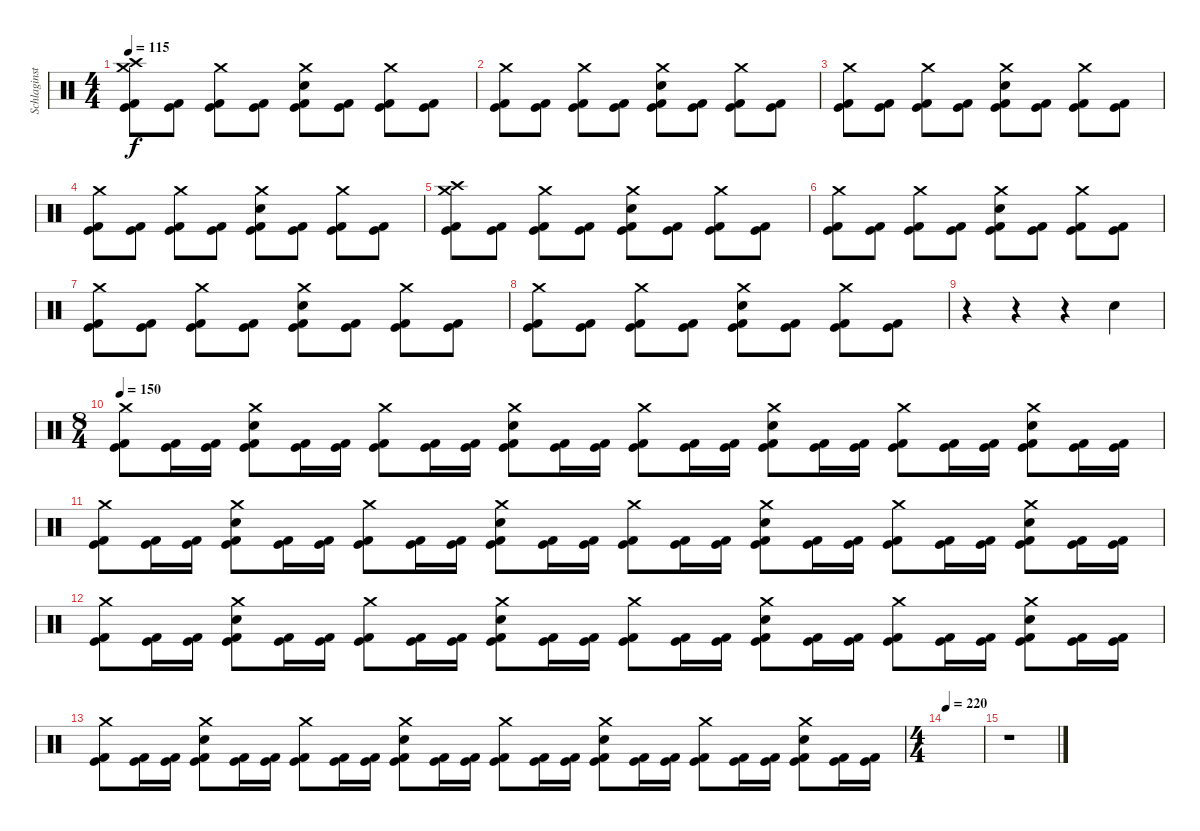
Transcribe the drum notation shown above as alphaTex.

\track ("Schlaginstrumente - Auswahl" "Schlaginst") {instrument percussion}
\staff {score}
\articulation defaults
\ts (4 4)
\tempo 115
\clef neutral
\ks c
("Crash medium (hit)" "Crash high (hit)" "Kick (hit) 2" "Kick (hit)").8{dy f} ("Kick (hit) 2" "Kick (hit)").8 ("Crash medium (hit)" "Kick (hit) 2" "Kick (hit)").8 ("Kick (hit) 2" "Kick (hit)").8 ("Crash medium (hit)" "Electric Snare (hit)" "Kick (hit) 2" "Kick (hit)").8 ("Kick (hit) 2" "Kick (hit)").8 ("Crash medium (hit)" "Kick (hit) 2" "Kick (hit)").8 ("Kick (hit) 2" "Kick (hit)").8 |
("Crash medium (hit)" "Kick (hit) 2" "Kick (hit)").8 ("Kick (hit) 2" "Kick (hit)").8 ("Crash medium (hit)" "Kick (hit) 2" "Kick (hit)").8 ("Kick (hit) 2" "Kick (hit)").8 ("Crash medium (hit)" "Electric Snare (hit)" "Kick (hit) 2" "Kick (hit)").8 ("Kick (hit) 2" "Kick (hit)").8 ("Crash medium (hit)" "Kick (hit) 2" "Kick (hit)").8 ("Kick (hit) 2" "Kick (hit)").8 |
("Crash medium (hit)" "Kick (hit) 2" "Kick (hit)").8 ("Kick (hit) 2" "Kick (hit)").8 ("Crash medium (hit)" "Kick (hit) 2" "Kick (hit)").8 ("Kick (hit) 2" "Kick (hit)").8 ("Crash medium (hit)" "Electric Snare (hit)" "Kick (hit) 2" "Kick (hit)").8 ("Kick (hit) 2" "Kick (hit)").8 ("Crash medium (hit)" "Kick (hit) 2" "Kick (hit)").8 ("Kick (hit) 2" "Kick (hit)").8 |
("Crash medium (hit)" "Kick (hit) 2" "Kick (hit)").8 ("Kick (hit) 2" "Kick (hit)").8 ("Crash medium (hit)" "Kick (hit) 2" "Kick (hit)").8 ("Kick (hit) 2" "Kick (hit)").8 ("Crash medium (hit)" "Electric Snare (hit)" "Kick (hit) 2" "Kick (hit)").8 ("Kick (hit) 2" "Kick (hit)").8 ("Crash medium (hit)" "Kick (hit) 2" "Kick (hit)").8 ("Kick (hit) 2" "Kick (hit)").8 |
("Crash medium (hit)" "Crash high (hit)" "Kick (hit) 2" "Kick (hit)").8 ("Kick (hit) 2" "Kick (hit)").8 ("Crash medium (hit)" "Kick (hit) 2" "Kick (hit)").8 ("Kick (hit) 2" "Kick (hit)").8 ("Crash medium (hit)" "Electric Snare (hit)" "Kick (hit) 2" "Kick (hit)").8 ("Kick (hit) 2" "Kick (hit)").8 ("Crash medium (hit)" "Kick (hit) 2" "Kick (hit)").8 ("Kick (hit) 2" "Kick (hit)").8 |
("Crash medium (hit)" "Kick (hit) 2" "Kick (hit)").8 ("Kick (hit) 2" "Kick (hit)").8 ("Crash medium (hit)" "Kick (hit) 2" "Kick (hit)").8 ("Kick (hit) 2" "Kick (hit)").8 ("Crash medium (hit)" "Electric Snare (hit)" "Kick (hit) 2" "Kick (hit)").8 ("Kick (hit) 2" "Kick (hit)").8 ("Crash medium (hit)" "Kick (hit) 2" "Kick (hit)").8 ("Kick (hit) 2" "Kick (hit)").8 |
("Crash medium (hit)" "Kick (hit) 2" "Kick (hit)").8 ("Kick (hit) 2" "Kick (hit)").8 ("Crash medium (hit)" "Kick (hit) 2" "Kick (hit)").8 ("Kick (hit) 2" "Kick (hit)").8 ("Crash medium (hit)" "Electric Snare (hit)" "Kick (hit) 2" "Kick (hit)").8 ("Kick (hit) 2" "Kick (hit)").8 ("Crash medium (hit)" "Kick (hit) 2" "Kick (hit)").8 ("Kick (hit) 2" "Kick (hit)").8 |
("Crash medium (hit)" "Kick (hit) 2" "Kick (hit)").8 ("Kick (hit) 2" "Kick (hit)").8 ("Crash medium (hit)" "Kick (hit) 2" "Kick (hit)").8 ("Kick (hit) 2" "Kick (hit)").8 ("Crash medium (hit)" "Electric Snare (hit)" "Kick (hit) 2" "Kick (hit)").8 ("Kick (hit) 2" "Kick (hit)").8 ("Crash medium (hit)" "Kick (hit) 2" "Kick (hit)").8 ("Kick (hit) 2" "Kick (hit)").8 |
r.4 r.4 r.4 "Electric Snare (hit)".4 |
\ts (8 4)
\tempo 150
("Crash medium (hit)" "Kick (hit) 2" "Kick (hit)").8 ("Kick (hit) 2" "Kick (hit)").16 ("Kick (hit) 2" "Kick (hit)").16 ("Crash medium (hit)" "Electric Snare (hit)" "Kick (hit) 2" "Kick (hit)").8 ("Kick (hit) 2" "Kick (hit)").16 ("Kick (hit) 2" "Kick (hit)").16 ("Crash medium (hit)" "Kick (hit) 2" "Kick (hit)").8 ("Kick (hit) 2" "Kick (hit)").16 ("Kick (hit) 2" "Kick (hit)").16 ("Crash medium (hit)" "Electric Snare (hit)" "Kick (hit) 2" "Kick (hit)").8 ("Kick (hit) 2" "Kick (hit)").16 ("Kick (hit) 2" "Kick (hit)").16 ("Crash medium (hit)" "Kick (hit) 2" "Kick (hit)").8 ("Kick (hit) 2" "Kick (hit)").16 ("Kick (hit) 2" "Kick (hit)").16 ("Crash medium (hit)" "Electric Snare (hit)" "Kick (hit) 2" "Kick (hit)").8 ("Kick (hit) 2" "Kick (hit)").16 ("Kick (hit) 2" "Kick (hit)").16 ("Crash medium (hit)" "Kick (hit) 2" "Kick (hit)").8 ("Kick (hit) 2" "Kick (hit)").16 ("Kick (hit) 2" "Kick (hit)").16 ("Crash medium (hit)" "Electric Snare (hit)" "Kick (hit) 2" "Kick (hit)").8 ("Kick (hit) 2" "Kick (hit)").16 ("Kick (hit) 2" "Kick (hit)").16 |
("Crash medium (hit)" "Kick (hit) 2" "Kick (hit)").8 ("Kick (hit) 2" "Kick (hit)").16 ("Kick (hit) 2" "Kick (hit)").16 ("Crash medium (hit)" "Electric Snare (hit)" "Kick (hit) 2" "Kick (hit)").8 ("Kick (hit) 2" "Kick (hit)").16 ("Kick (hit) 2" "Kick (hit)").16 ("Crash medium (hit)" "Kick (hit) 2" "Kick (hit)").8 ("Kick (hit) 2" "Kick (hit)").16 ("Kick (hit) 2" "Kick (hit)").16 ("Crash medium (hit)" "Electric Snare (hit)" "Kick (hit) 2" "Kick (hit)").8 ("Kick (hit) 2" "Kick (hit)").16 ("Kick (hit) 2" "Kick (hit)").16 ("Crash medium (hit)" "Kick (hit) 2" "Kick (hit)").8 ("Kick (hit) 2" "Kick (hit)").16 ("Kick (hit) 2" "Kick (hit)").16 ("Crash medium (hit)" "Electric Snare (hit)" "Kick (hit) 2" "Kick (hit)").8 ("Kick (hit) 2" "Kick (hit)").16 ("Kick (hit) 2" "Kick (hit)").16 ("Crash medium (hit)" "Kick (hit) 2" "Kick (hit)").8 ("Kick (hit) 2" "Kick (hit)").16 ("Kick (hit) 2" "Kick (hit)").16 ("Crash medium (hit)" "Electric Snare (hit)" "Kick (hit) 2" "Kick (hit)").8 ("Kick (hit) 2" "Kick (hit)").16 ("Kick (hit) 2" "Kick (hit)").16 |
("Crash medium (hit)" "Kick (hit) 2" "Kick (hit)").8 ("Kick (hit) 2" "Kick (hit)").16 ("Kick (hit) 2" "Kick (hit)").16 ("Crash medium (hit)" "Electric Snare (hit)" "Kick (hit) 2" "Kick (hit)").8 ("Kick (hit) 2" "Kick (hit)").16 ("Kick (hit) 2" "Kick (hit)").16 ("Crash medium (hit)" "Kick (hit) 2" "Kick (hit)").8 ("Kick (hit) 2" "Kick (hit)").16 ("Kick (hit) 2" "Kick (hit)").16 ("Crash medium (hit)" "Electric Snare (hit)" "Kick (hit) 2" "Kick (hit)").8 ("Kick (hit) 2" "Kick (hit)").16 ("Kick (hit) 2" "Kick (hit)").16 ("Crash medium (hit)" "Kick (hit) 2" "Kick (hit)").8 ("Kick (hit) 2" "Kick (hit)").16 ("Kick (hit) 2" "Kick (hit)").16 ("Crash medium (hit)" "Electric Snare (hit)" "Kick (hit) 2" "Kick (hit)").8 ("Kick (hit) 2" "Kick (hit)").16 ("Kick (hit) 2" "Kick (hit)").16 ("Crash medium (hit)" "Kick (hit) 2" "Kick (hit)").8 ("Kick (hit) 2" "Kick (hit)").16 ("Kick (hit) 2" "Kick (hit)").16 ("Crash medium (hit)" "Electric Snare (hit)" "Kick (hit) 2" "Kick (hit)").8 ("Kick (hit) 2" "Kick (hit)").16 ("Kick (hit) 2" "Kick (hit)").16 |
("Crash medium (hit)" "Kick (hit) 2" "Kick (hit)").8 ("Kick (hit) 2" "Kick (hit)").16 ("Kick (hit) 2" "Kick (hit)").16 ("Crash medium (hit)" "Electric Snare (hit)" "Kick (hit) 2" "Kick (hit)").8 ("Kick (hit) 2" "Kick (hit)").16 ("Kick (hit) 2" "Kick (hit)").16 ("Crash medium (hit)" "Kick (hit) 2" "Kick (hit)").8 ("Kick (hit) 2" "Kick (hit)").16 ("Kick (hit) 2" "Kick (hit)").16 ("Crash medium (hit)" "Electric Snare (hit)" "Kick (hit) 2" "Kick (hit)").8 ("Kick (hit) 2" "Kick (hit)").16 ("Kick (hit) 2" "Kick (hit)").16 ("Crash medium (hit)" "Kick (hit) 2" "Kick (hit)").8 ("Kick (hit) 2" "Kick (hit)").16 ("Kick (hit) 2" "Kick (hit)").16 ("Crash medium (hit)" "Electric Snare (hit)" "Kick (hit) 2" "Kick (hit)").8 ("Kick (hit) 2" "Kick (hit)").16 ("Kick (hit) 2" "Kick (hit)").16 ("Crash medium (hit)" "Kick (hit) 2" "Kick (hit)").8 ("Kick (hit) 2" "Kick (hit)").16 ("Kick (hit) 2" "Kick (hit)").16 ("Crash medium (hit)" "Electric Snare (hit)" "Kick (hit) 2" "Kick (hit)").8 ("Kick (hit) 2" "Kick (hit)").16 ("Kick (hit) 2" "Kick (hit)").16 |
\ts (4 4)
\tempo 220
|
r.1
